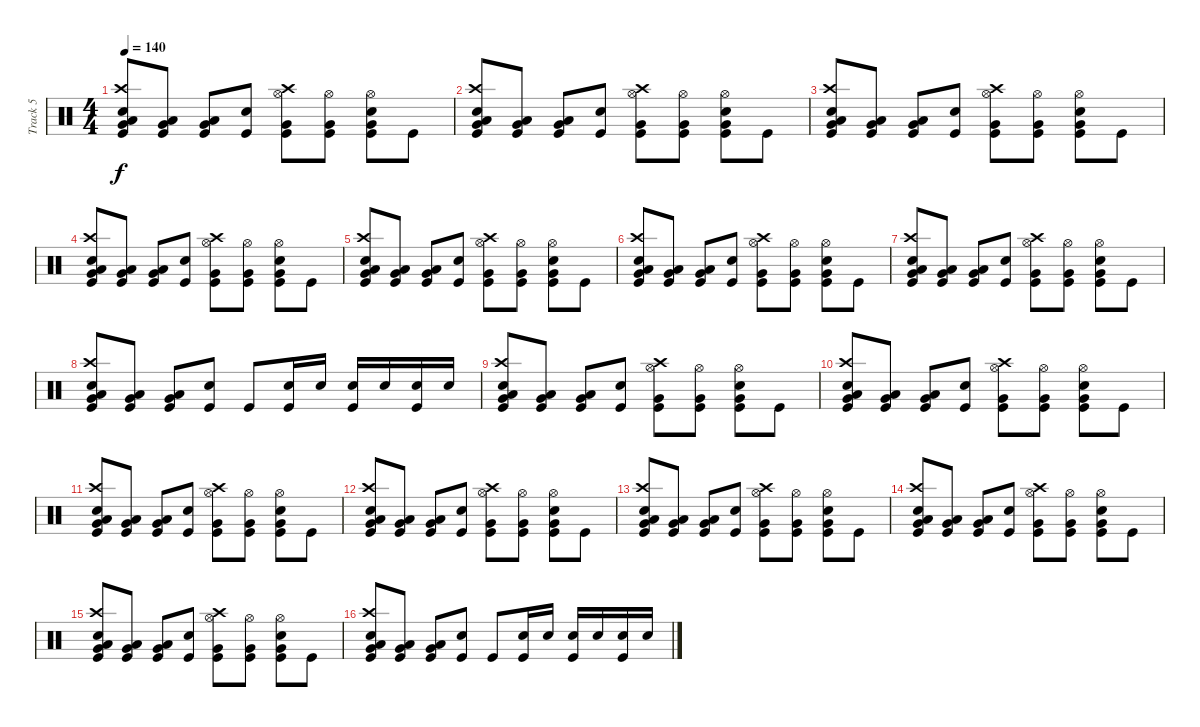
\track ("Track 5" "Track 5") {instrument percussion}
\staff {score}
\articulation defaults
\ts (4 4)
\tempo 140
\clef neutral
\ks c
("Kick (hit)" "Low Tom (hit)" "Crash high (hit)" "Electric Snare (hit)" "Very Low Tom (hit)").8{dy f} ("Kick (hit)" "Low Tom (hit)" "Very Low Tom (hit)").8 ("Kick (hit)" "Low Tom (hit)" "Very Low Tom (hit)").8 ("Electric Snare (hit)" "Kick (hit)").8 ("Kick (hit)" "Crash high (hit)" "Very Low Tom (hit)" "Hi-Hat (open)").8 ("Kick (hit)" "Very Low Tom (hit)" "Hi-Hat (open)").8 ("Electric Snare (hit)" "Kick (hit)" "Very Low Tom (hit)" "Hi-Hat (open)").8 "Kick (hit)".8 |
("Kick (hit)" "Low Tom (hit)" "Crash high (hit)" "Electric Snare (hit)" "Very Low Tom (hit)").8 ("Kick (hit)" "Low Tom (hit)" "Very Low Tom (hit)").8 ("Kick (hit)" "Low Tom (hit)" "Very Low Tom (hit)").8 ("Electric Snare (hit)" "Kick (hit)").8 ("Kick (hit)" "Crash high (hit)" "Very Low Tom (hit)" "Hi-Hat (open)").8 ("Kick (hit)" "Very Low Tom (hit)" "Hi-Hat (open)").8 ("Electric Snare (hit)" "Kick (hit)" "Very Low Tom (hit)" "Hi-Hat (open)").8 "Kick (hit)".8 |
("Kick (hit)" "Low Tom (hit)" "Crash high (hit)" "Electric Snare (hit)" "Very Low Tom (hit)").8 ("Kick (hit)" "Low Tom (hit)" "Very Low Tom (hit)").8 ("Kick (hit)" "Low Tom (hit)" "Very Low Tom (hit)").8 ("Electric Snare (hit)" "Kick (hit)").8 ("Kick (hit)" "Crash high (hit)" "Very Low Tom (hit)" "Hi-Hat (open)").8 ("Kick (hit)" "Very Low Tom (hit)" "Hi-Hat (open)").8 ("Electric Snare (hit)" "Kick (hit)" "Very Low Tom (hit)" "Hi-Hat (open)").8 "Kick (hit)".8 |
("Kick (hit)" "Low Tom (hit)" "Crash high (hit)" "Electric Snare (hit)" "Very Low Tom (hit)").8 ("Kick (hit)" "Low Tom (hit)" "Very Low Tom (hit)").8 ("Kick (hit)" "Low Tom (hit)" "Very Low Tom (hit)").8 ("Electric Snare (hit)" "Kick (hit)").8 ("Kick (hit)" "Crash high (hit)" "Very Low Tom (hit)" "Hi-Hat (open)").8 ("Kick (hit)" "Very Low Tom (hit)" "Hi-Hat (open)").8 ("Electric Snare (hit)" "Kick (hit)" "Very Low Tom (hit)" "Hi-Hat (open)").8 "Kick (hit)".8 |
("Kick (hit)" "Low Tom (hit)" "Crash high (hit)" "Electric Snare (hit)" "Very Low Tom (hit)").8 ("Kick (hit)" "Low Tom (hit)" "Very Low Tom (hit)").8 ("Kick (hit)" "Low Tom (hit)" "Very Low Tom (hit)").8 ("Electric Snare (hit)" "Kick (hit)").8 ("Kick (hit)" "Crash high (hit)" "Very Low Tom (hit)" "Hi-Hat (open)").8 ("Kick (hit)" "Very Low Tom (hit)" "Hi-Hat (open)").8 ("Electric Snare (hit)" "Kick (hit)" "Very Low Tom (hit)" "Hi-Hat (open)").8 "Kick (hit)".8 |
("Kick (hit)" "Low Tom (hit)" "Crash high (hit)" "Electric Snare (hit)" "Very Low Tom (hit)").8 ("Kick (hit)" "Low Tom (hit)" "Very Low Tom (hit)").8 ("Kick (hit)" "Low Tom (hit)" "Very Low Tom (hit)").8 ("Electric Snare (hit)" "Kick (hit)").8 ("Kick (hit)" "Crash high (hit)" "Very Low Tom (hit)" "Hi-Hat (open)").8 ("Kick (hit)" "Very Low Tom (hit)" "Hi-Hat (open)").8 ("Electric Snare (hit)" "Kick (hit)" "Very Low Tom (hit)" "Hi-Hat (open)").8 "Kick (hit)".8 |
("Kick (hit)" "Low Tom (hit)" "Crash high (hit)" "Electric Snare (hit)" "Very Low Tom (hit)").8 ("Kick (hit)" "Low Tom (hit)" "Very Low Tom (hit)").8 ("Kick (hit)" "Low Tom (hit)" "Very Low Tom (hit)").8 ("Electric Snare (hit)" "Kick (hit)").8 ("Kick (hit)" "Crash high (hit)" "Very Low Tom (hit)" "Hi-Hat (open)").8 ("Kick (hit)" "Very Low Tom (hit)" "Hi-Hat (open)").8 ("Electric Snare (hit)" "Kick (hit)" "Very Low Tom (hit)" "Hi-Hat (open)").8 "Kick (hit)".8 |
("Kick (hit)" "Low Tom (hit)" "Crash high (hit)" "Electric Snare (hit)" "Very Low Tom (hit)").8 ("Kick (hit)" "Low Tom (hit)" "Very Low Tom (hit)").8 ("Kick (hit)" "Low Tom (hit)" "Very Low Tom (hit)").8 ("Electric Snare (hit)" "Kick (hit)").8 "Kick (hit)".8 ("Kick (hit)" "Electric Snare (hit)").16 "Electric Snare (hit)".16 ("Electric Snare (hit)" "Kick (hit)").16 "Electric Snare (hit)".16 ("Kick (hit)" "Electric Snare (hit)").16 "Electric Snare (hit)".16 |
("Kick (hit)" "Low Tom (hit)" "Crash high (hit)" "Electric Snare (hit)" "Very Low Tom (hit)").8 ("Kick (hit)" "Low Tom (hit)" "Very Low Tom (hit)").8 ("Kick (hit)" "Low Tom (hit)" "Very Low Tom (hit)").8 ("Electric Snare (hit)" "Kick (hit)").8 ("Kick (hit)" "Crash high (hit)" "Very Low Tom (hit)" "Hi-Hat (open)").8 ("Kick (hit)" "Very Low Tom (hit)" "Hi-Hat (open)").8 ("Electric Snare (hit)" "Kick (hit)" "Very Low Tom (hit)" "Hi-Hat (open)").8 "Kick (hit)".8 |
("Kick (hit)" "Low Tom (hit)" "Crash high (hit)" "Electric Snare (hit)" "Very Low Tom (hit)").8 ("Kick (hit)" "Low Tom (hit)" "Very Low Tom (hit)").8 ("Kick (hit)" "Low Tom (hit)" "Very Low Tom (hit)").8 ("Electric Snare (hit)" "Kick (hit)").8 ("Kick (hit)" "Crash high (hit)" "Very Low Tom (hit)" "Hi-Hat (open)").8 ("Kick (hit)" "Very Low Tom (hit)" "Hi-Hat (open)").8 ("Electric Snare (hit)" "Kick (hit)" "Very Low Tom (hit)" "Hi-Hat (open)").8 "Kick (hit)".8 |
("Kick (hit)" "Low Tom (hit)" "Crash high (hit)" "Electric Snare (hit)" "Very Low Tom (hit)").8 ("Kick (hit)" "Low Tom (hit)" "Very Low Tom (hit)").8 ("Kick (hit)" "Low Tom (hit)" "Very Low Tom (hit)").8 ("Electric Snare (hit)" "Kick (hit)").8 ("Kick (hit)" "Crash high (hit)" "Very Low Tom (hit)" "Hi-Hat (open)").8 ("Kick (hit)" "Very Low Tom (hit)" "Hi-Hat (open)").8 ("Electric Snare (hit)" "Kick (hit)" "Very Low Tom (hit)" "Hi-Hat (open)").8 "Kick (hit)".8 |
("Kick (hit)" "Low Tom (hit)" "Crash high (hit)" "Electric Snare (hit)" "Very Low Tom (hit)").8 ("Kick (hit)" "Low Tom (hit)" "Very Low Tom (hit)").8 ("Kick (hit)" "Low Tom (hit)" "Very Low Tom (hit)").8 ("Electric Snare (hit)" "Kick (hit)").8 ("Kick (hit)" "Crash high (hit)" "Very Low Tom (hit)" "Hi-Hat (open)").8 ("Kick (hit)" "Very Low Tom (hit)" "Hi-Hat (open)").8 ("Electric Snare (hit)" "Kick (hit)" "Very Low Tom (hit)" "Hi-Hat (open)").8 "Kick (hit)".8 |
("Kick (hit)" "Low Tom (hit)" "Crash high (hit)" "Electric Snare (hit)" "Very Low Tom (hit)").8 ("Kick (hit)" "Low Tom (hit)" "Very Low Tom (hit)").8 ("Kick (hit)" "Low Tom (hit)" "Very Low Tom (hit)").8 ("Electric Snare (hit)" "Kick (hit)").8 ("Kick (hit)" "Crash high (hit)" "Very Low Tom (hit)" "Hi-Hat (open)").8 ("Kick (hit)" "Very Low Tom (hit)" "Hi-Hat (open)").8 ("Electric Snare (hit)" "Kick (hit)" "Very Low Tom (hit)" "Hi-Hat (open)").8 "Kick (hit)".8 |
("Kick (hit)" "Low Tom (hit)" "Crash high (hit)" "Electric Snare (hit)" "Very Low Tom (hit)").8 ("Kick (hit)" "Low Tom (hit)" "Very Low Tom (hit)").8 ("Kick (hit)" "Low Tom (hit)" "Very Low Tom (hit)").8 ("Electric Snare (hit)" "Kick (hit)").8 ("Kick (hit)" "Crash high (hit)" "Very Low Tom (hit)" "Hi-Hat (open)").8 ("Kick (hit)" "Very Low Tom (hit)" "Hi-Hat (open)").8 ("Electric Snare (hit)" "Kick (hit)" "Very Low Tom (hit)" "Hi-Hat (open)").8 "Kick (hit)".8 |
("Kick (hit)" "Low Tom (hit)" "Crash high (hit)" "Electric Snare (hit)" "Very Low Tom (hit)").8 ("Kick (hit)" "Low Tom (hit)" "Very Low Tom (hit)").8 ("Kick (hit)" "Low Tom (hit)" "Very Low Tom (hit)").8 ("Electric Snare (hit)" "Kick (hit)").8 ("Kick (hit)" "Crash high (hit)" "Very Low Tom (hit)" "Hi-Hat (open)").8 ("Kick (hit)" "Very Low Tom (hit)" "Hi-Hat (open)").8 ("Electric Snare (hit)" "Kick (hit)" "Very Low Tom (hit)" "Hi-Hat (open)").8 "Kick (hit)".8 |
("Kick (hit)" "Low Tom (hit)" "Crash high (hit)" "Electric Snare (hit)" "Very Low Tom (hit)").8 ("Kick (hit)" "Low Tom (hit)" "Very Low Tom (hit)").8 ("Kick (hit)" "Low Tom (hit)" "Very Low Tom (hit)").8 ("Electric Snare (hit)" "Kick (hit)").8 "Kick (hit)".8 ("Kick (hit)" "Electric Snare (hit)").16 "Electric Snare (hit)".16 ("Electric Snare (hit)" "Kick (hit)").16 "Electric Snare (hit)".16 ("Kick (hit)" "Electric Snare (hit)").16 "Electric Snare (hit)".16
